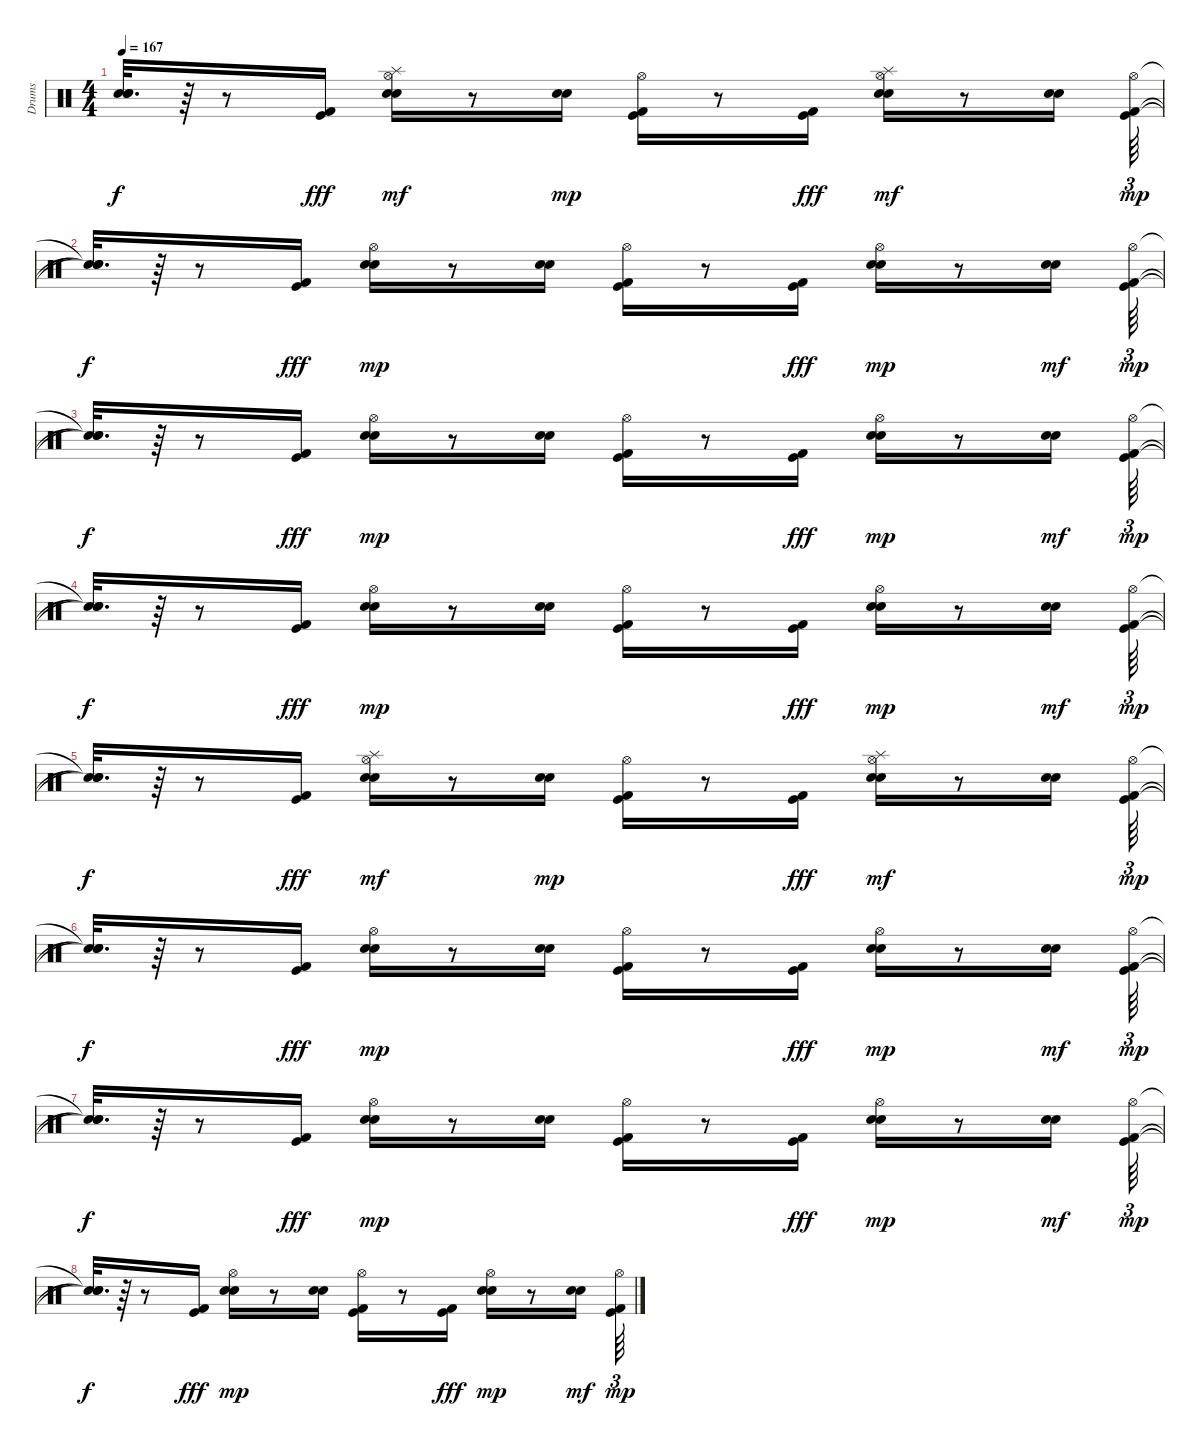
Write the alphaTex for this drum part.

\track ("Drums" "Drums") {instrument percussion}
\staff {score}
\articulation defaults
\ts (4 4)
\tempo 167
\clef neutral
\ks c
("Snare (hit)"{t} "Snare (hit)"{t} "Snare (hit)"{t}).32{d dy f} r.64 r.8 ("Kick (hit) 2" "Kick (hit)").16{dy fff} ("Snare (hit) 2" "Hand Clap (hit)" "Hi-Hat (open)" "Splash (hit)").16{dy mf} r.8 ("Snare (hit) 2" "Hand Clap (hit)").16{dy mp} ("Kick (hit) 2" "Kick (hit)" "Hi-Hat (open)").16 r.8 ("Kick (hit) 2" "Kick (hit)").16{dy fff} ("Snare (hit) 2" "Hand Clap (hit)" "Hi-Hat (open)" "Splash (hit)").16{dy mf} r.8 ("Snare (hit) 2" "Hand Clap (hit)").16 ("Kick (hit) 2" "Kick (hit)" "Hi-Hat (open)").64{tu (3 2) dy mp} |
("Snare (hit)"{t} "Snare (hit)"{t} "Snare (hit)"{t}).32{d dy f} r.64 r.8 ("Kick (hit) 2" "Kick (hit)").16{dy fff} ("Snare (hit) 2" "Hand Clap (hit)" "Hi-Hat (open)").16{dy mp} r.8 ("Snare (hit) 2" "Hand Clap (hit)").16 ("Kick (hit) 2" "Kick (hit)" "Hi-Hat (open)").16 r.8 ("Kick (hit) 2" "Kick (hit)").16{dy fff} ("Snare (hit) 2" "Hand Clap (hit)" "Hi-Hat (open)").16{dy mp} r.8 ("Snare (hit) 2" "Hand Clap (hit)").16{dy mf} ("Kick (hit) 2" "Kick (hit)" "Hi-Hat (open)").64{tu (3 2) dy mp} |
("Snare (hit)"{t} "Snare (hit)"{t} "Snare (hit)"{t}).32{d dy f} r.64 r.8 ("Kick (hit) 2" "Kick (hit)").16{dy fff} ("Snare (hit) 2" "Hand Clap (hit)" "Hi-Hat (open)").16{dy mp} r.8 ("Snare (hit) 2" "Hand Clap (hit)").16 ("Kick (hit) 2" "Kick (hit)" "Hi-Hat (open)").16 r.8 ("Kick (hit) 2" "Kick (hit)").16{dy fff} ("Snare (hit) 2" "Hand Clap (hit)" "Hi-Hat (open)").16{dy mp} r.8 ("Snare (hit) 2" "Hand Clap (hit)").16{dy mf} ("Kick (hit) 2" "Kick (hit)" "Hi-Hat (open)").64{tu (3 2) dy mp} |
("Snare (hit)"{t} "Snare (hit)"{t} "Snare (hit)"{t}).32{d dy f} r.64 r.8 ("Kick (hit) 2" "Kick (hit)").16{dy fff} ("Snare (hit) 2" "Hand Clap (hit)" "Hi-Hat (open)").16{dy mp} r.8 ("Snare (hit) 2" "Hand Clap (hit)").16 ("Kick (hit) 2" "Kick (hit)" "Hi-Hat (open)").16 r.8 ("Kick (hit) 2" "Kick (hit)").16{dy fff} ("Snare (hit) 2" "Hand Clap (hit)" "Hi-Hat (open)").16{dy mp} r.8 ("Snare (hit) 2" "Hand Clap (hit)").16{dy mf} ("Kick (hit) 2" "Kick (hit)" "Hi-Hat (open)").64{tu (3 2) dy mp} |
("Snare (hit)"{t} "Snare (hit)"{t} "Snare (hit)"{t}).32{d dy f} r.64 r.8 ("Kick (hit) 2" "Kick (hit)").16{dy fff} ("Snare (hit) 2" "Hand Clap (hit)" "Hi-Hat (open)" "Splash (hit)").16{dy mf} r.8 ("Snare (hit) 2" "Hand Clap (hit)").16{dy mp} ("Kick (hit) 2" "Kick (hit)" "Hi-Hat (open)").16 r.8 ("Kick (hit) 2" "Kick (hit)").16{dy fff} ("Snare (hit) 2" "Hand Clap (hit)" "Hi-Hat (open)" "Splash (hit)").16{dy mf} r.8 ("Snare (hit) 2" "Hand Clap (hit)").16 ("Kick (hit) 2" "Kick (hit)" "Hi-Hat (open)").64{tu (3 2) dy mp} |
("Snare (hit)"{t} "Snare (hit)"{t} "Snare (hit)"{t}).32{d dy f} r.64 r.8 ("Kick (hit) 2" "Kick (hit)").16{dy fff} ("Snare (hit) 2" "Hand Clap (hit)" "Hi-Hat (open)").16{dy mp} r.8 ("Snare (hit) 2" "Hand Clap (hit)").16 ("Kick (hit) 2" "Kick (hit)" "Hi-Hat (open)").16 r.8 ("Kick (hit) 2" "Kick (hit)").16{dy fff} ("Snare (hit) 2" "Hand Clap (hit)" "Hi-Hat (open)").16{dy mp} r.8 ("Snare (hit) 2" "Hand Clap (hit)").16{dy mf} ("Kick (hit) 2" "Kick (hit)" "Hi-Hat (open)").64{tu (3 2) dy mp} |
("Snare (hit)"{t} "Snare (hit)"{t} "Snare (hit)"{t}).32{d dy f} r.64 r.8 ("Kick (hit) 2" "Kick (hit)").16{dy fff} ("Snare (hit) 2" "Hand Clap (hit)" "Hi-Hat (open)").16{dy mp} r.8 ("Snare (hit) 2" "Hand Clap (hit)").16 ("Kick (hit) 2" "Kick (hit)" "Hi-Hat (open)").16 r.8 ("Kick (hit) 2" "Kick (hit)").16{dy fff} ("Snare (hit) 2" "Hand Clap (hit)" "Hi-Hat (open)").16{dy mp} r.8 ("Snare (hit) 2" "Hand Clap (hit)").16{dy mf} ("Kick (hit) 2" "Kick (hit)" "Hi-Hat (open)").64{tu (3 2) dy mp} |
("Snare (hit)"{t} "Snare (hit)"{t} "Snare (hit)"{t}).32{d dy f} r.64 r.8 ("Kick (hit) 2" "Kick (hit)").16{dy fff} ("Snare (hit) 2" "Hand Clap (hit)" "Hi-Hat (open)").16{dy mp} r.8 ("Snare (hit) 2" "Hand Clap (hit)").16 ("Kick (hit) 2" "Kick (hit)" "Hi-Hat (open)").16 r.8 ("Kick (hit) 2" "Kick (hit)").16{dy fff} ("Snare (hit) 2" "Hand Clap (hit)" "Hi-Hat (open)").16{dy mp} r.8 ("Snare (hit) 2" "Hand Clap (hit)").16{dy mf} ("Kick (hit) 2" "Kick (hit)" "Hi-Hat (open)").64{tu (3 2) dy mp}
